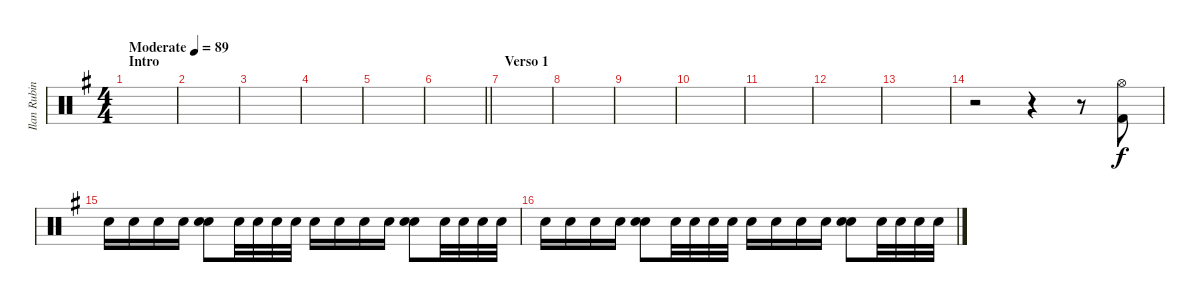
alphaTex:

\track ("Ilan Rubin (Batería)" "Ilan Rubin") {instrument percussion}
\staff {score}
\articulation defaults
\ts (4 4)
\section ("" "Intro")
\tempo (89 "Moderate")
\clef neutral
\ks g
|
|
|
|
|
\barLineRight lightlight
|
\section ("" "Verso 1")
|
|
|
|
|
|
|
r.2 r.4 r.8 ("Kick (hit) 2" "Hi-Hat (open)").8 |
"Electric Snare (hit)".16{volume 4} "Electric Snare (hit)".16{volume 6} "Electric Snare (hit)".16 "Electric Snare (hit)".16 ("Electric Snare (hit)" "Electric Snare (hit)").8 "Electric Snare (hit)".32 "Electric Snare (hit)".32 "Electric Snare (hit)".32 "Electric Snare (hit)".32 "Electric Snare (hit)".16 "Electric Snare (hit)".16 "Electric Snare (hit)".16 "Electric Snare (hit)".16 ("Electric Snare (hit)" "Electric Snare (hit)").8{volume 16} "Electric Snare (hit)".32{volume 13} "Electric Snare (hit)".32 "Electric Snare (hit)".32 "Electric Snare (hit)".32 |
"Electric Snare (hit)".16 "Electric Snare (hit)".16 "Electric Snare (hit)".16 "Electric Snare (hit)".16 ("Electric Snare (hit)" "Electric Snare (hit)").8{volume 16} "Electric Snare (hit)".32{volume 13} "Electric Snare (hit)".32 "Electric Snare (hit)".32 "Electric Snare (hit)".32 "Electric Snare (hit)".16 "Electric Snare (hit)".16 "Electric Snare (hit)".16 "Electric Snare (hit)".16 ("Electric Snare (hit)" "Electric Snare (hit)").8{volume 16} "Electric Snare (hit)".32{volume 13} "Electric Snare (hit)".32 "Electric Snare (hit)".32 "Electric Snare (hit)".32
